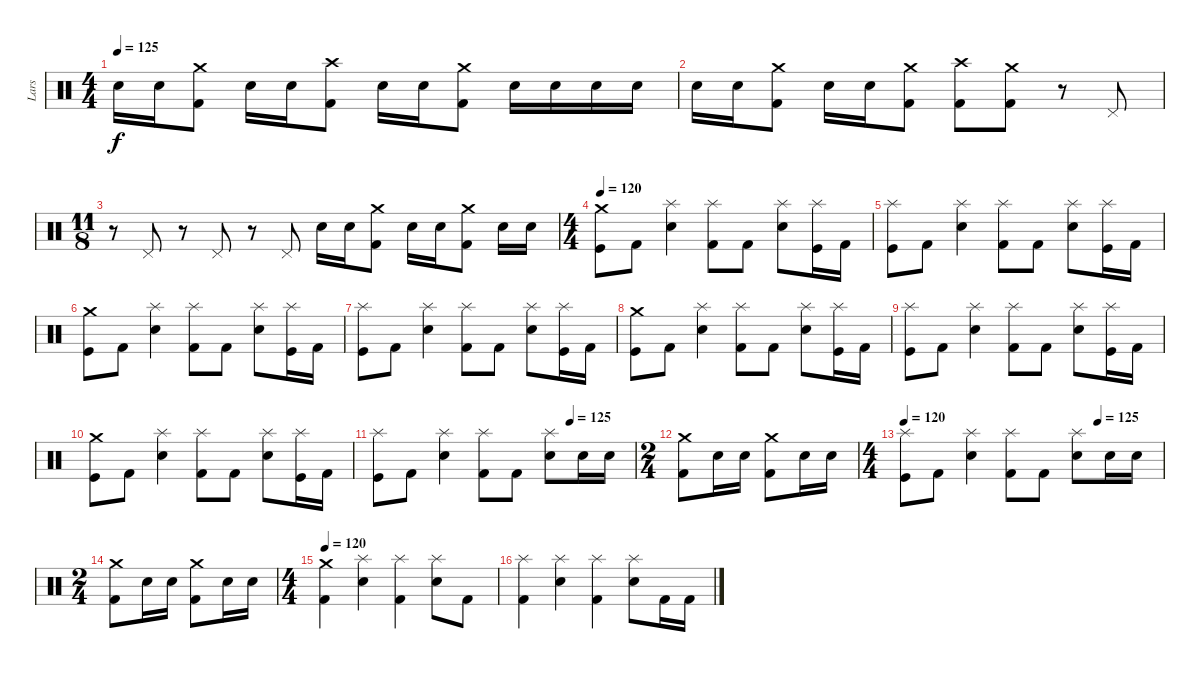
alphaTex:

\track ("Lars" "Lars") {instrument percussion}
\staff {score}
\articulation defaults
\ts (4 4)
\tempo 125
\clef neutral
\ks c "Snare (hit) 2".16{dy f} "Snare (hit) 2".16
("Crash medium (hit)" "Kick (hit) 2").8 "Snare (hit) 2".16 "Snare (hit) 2".16 ("Crash high (hit)" "Kick (hit) 2").8 "Snare (hit) 2".16 "Snare (hit) 2".16 ("Crash medium (hit)" "Kick (hit) 2").8 "Snare (hit) 2".16 "Snare (hit) 2".16 "Snare (hit) 2".16 "Snare (hit) 2".16 |
"Snare (hit) 2".16 "Snare (hit) 2".16 ("Crash medium (hit)" "Kick (hit) 2").8 "Snare (hit) 2".16 "Snare (hit) 2".16 ("Crash medium (hit)" "Kick (hit) 2").8 ("Crash high (hit)" "Kick (hit) 2").8 ("Crash medium (hit)" "Kick (hit) 2").8 r.8 "Pedal Hi-Hat (hit)".8 |
\ts (11 8)
r.8 "Pedal Hi-Hat (hit)".8 r.8 "Pedal Hi-Hat (hit)".8 r.8 "Pedal Hi-Hat (hit)".8 "Snare (hit) 2".16 "Snare (hit) 2".16 ("Crash medium (hit)" "Kick (hit) 2").8 "Snare (hit) 2".16 "Snare (hit) 2".16 ("Crash medium (hit)" "Kick (hit) 2").8 "Snare (hit) 2".16 "Snare (hit) 2".16 |
\ts (4 4)
\tempo 120
("Crash medium (hit)" "Kick (hit)").8 "Kick (hit) 2".8 ("Splash (hit)" "Snare (hit) 2").4 ("Splash (hit)" "Kick (hit) 2").8 "Kick (hit) 2".8 ("Splash (hit)" "Snare (hit) 2").8 ("Splash (hit)" "Kick (hit)").16 "Kick (hit) 2".16 |
("Splash (hit)" "Kick (hit)").8 "Kick (hit) 2".8 ("Splash (hit)" "Snare (hit) 2").4 ("Splash (hit)" "Kick (hit) 2").8 "Kick (hit) 2".8 ("Splash (hit)" "Snare (hit) 2").8 ("Splash (hit)" "Kick (hit)").16 "Kick (hit) 2".16 |
("Crash medium (hit)" "Kick (hit)").8 "Kick (hit) 2".8 ("Splash (hit)" "Snare (hit) 2").4 ("Splash (hit)" "Kick (hit) 2").8 "Kick (hit) 2".8 ("Splash (hit)" "Snare (hit) 2").8 ("Splash (hit)" "Kick (hit)").16 "Kick (hit) 2".16 |
("Splash (hit)" "Kick (hit)").8 "Kick (hit) 2".8 ("Splash (hit)" "Snare (hit) 2").4 ("Splash (hit)" "Kick (hit) 2").8 "Kick (hit) 2".8 ("Splash (hit)" "Snare (hit) 2").8 ("Splash (hit)" "Kick (hit)").16 "Kick (hit) 2".16 |
("Crash medium (hit)" "Kick (hit)").8 "Kick (hit) 2".8 ("Splash (hit)" "Snare (hit) 2").4 ("Splash (hit)" "Kick (hit) 2").8 "Kick (hit) 2".8 ("Splash (hit)" "Snare (hit) 2").8 ("Splash (hit)" "Kick (hit)").16 "Kick (hit) 2".16 |
("Splash (hit)" "Kick (hit)").8 "Kick (hit) 2".8 ("Splash (hit)" "Snare (hit) 2").4 ("Splash (hit)" "Kick (hit) 2").8 "Kick (hit) 2".8 ("Splash (hit)" "Snare (hit) 2").8 ("Splash (hit)" "Kick (hit)").16 "Kick (hit) 2".16 |
("Crash medium (hit)" "Kick (hit)").8 "Kick (hit) 2".8 ("Splash (hit)" "Snare (hit) 2").4 ("Splash (hit)" "Kick (hit) 2").8 "Kick (hit) 2".8 ("Splash (hit)" "Snare (hit) 2").8 ("Splash (hit)" "Kick (hit)").16 "Kick (hit) 2".16 |
\tempo (125 0.75)
("Splash (hit)" "Kick (hit)").8 "Kick (hit) 2".8 ("Splash (hit)" "Snare (hit) 2").4 ("Splash (hit)" "Kick (hit) 2").8 "Kick (hit) 2".8 ("Splash (hit)" "Snare (hit) 2").8 "Snare (hit) 2".16 "Snare (hit) 2".16 |
\ts (2 4)
("Crash medium (hit)" "Kick (hit) 2").8 "Snare (hit) 2".16 "Snare (hit) 2".16 ("Crash medium (hit)" "Kick (hit) 2").8 "Snare (hit) 2".16 "Snare (hit) 2".16 |
\ts (4 4)
\tempo 120
\tempo (125 0.75)
("Splash (hit)" "Kick (hit)").8 "Kick (hit) 2".8 ("Splash (hit)" "Snare (hit) 2").4 ("Splash (hit)" "Kick (hit) 2").8 "Kick (hit) 2".8 ("Splash (hit)" "Snare (hit) 2").8 "Snare (hit) 2".16 "Snare (hit) 2".16 |
\ts (2 4)
("Crash medium (hit)" "Kick (hit) 2").8 "Snare (hit) 2".16 "Snare (hit) 2".16 ("Crash medium (hit)" "Kick (hit) 2").8 "Snare (hit) 2".16 "Snare (hit) 2".16 |
\ts (4 4)
\tempo 120
("Crash medium (hit)" "Kick (hit) 2").4 ("Splash (hit)" "Snare (hit) 2").4 ("Splash (hit)" "Kick (hit) 2").4 ("Splash (hit)" "Snare (hit) 2").8 "Kick (hit) 2".8 |
("Splash (hit)" "Kick (hit) 2").4 ("Splash (hit)" "Snare (hit) 2").4 ("Splash (hit)" "Kick (hit) 2").4 ("Splash (hit)" "Snare (hit) 2").8 "Kick (hit) 2".16 "Kick (hit) 2".16
